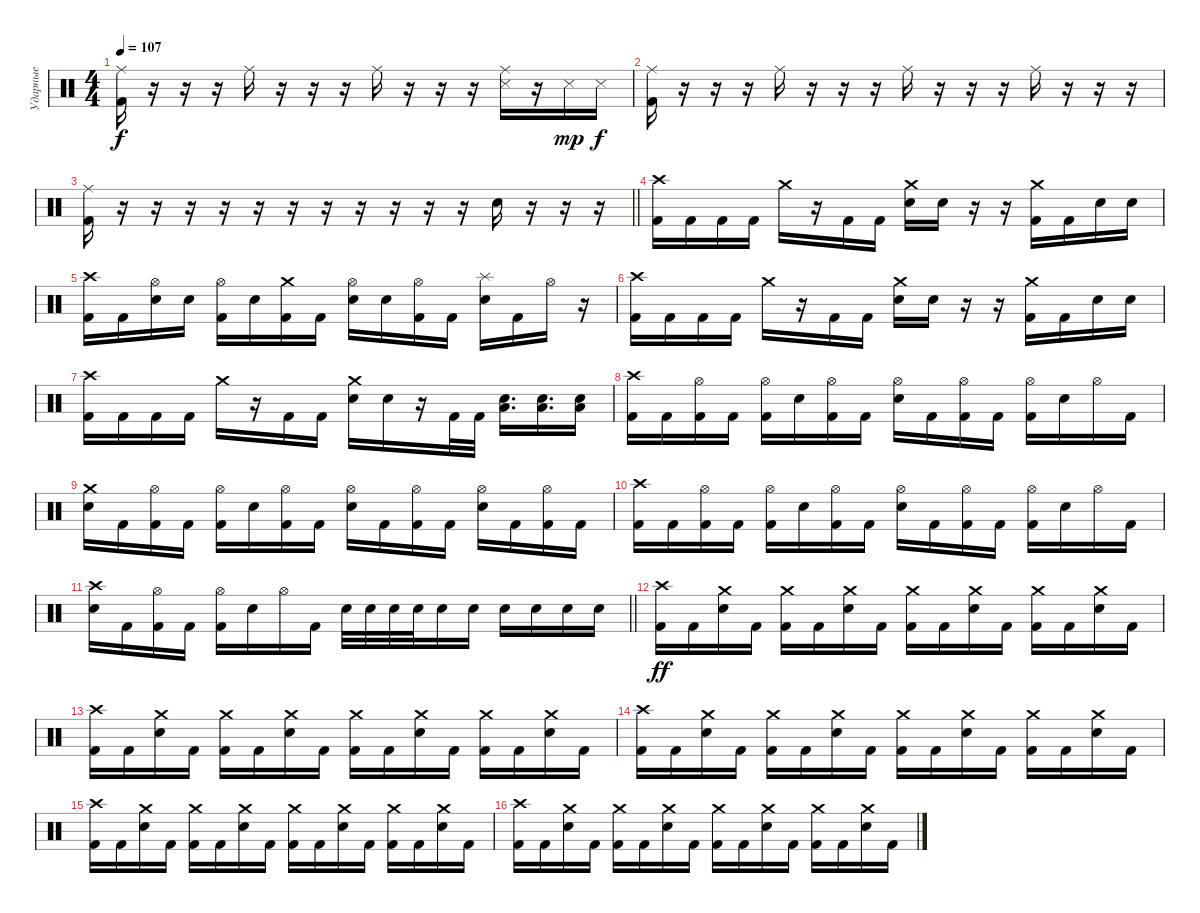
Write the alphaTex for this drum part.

\track ("Ударные" "Ударные") {instrument percussion}
\staff {score}
\articulation defaults
\ts (4 4)
\tempo 107
\clef neutral
\ks c
("Kick (hit) 2" "Ride (middle)").16{dy f} r.16 r.16 r.16 "Ride (middle)".16 r.16 r.16 r.16 "Ride (middle)".16 r.16 r.16 r.16 ("Ride (middle)" "Snare (side stick) 3").16 r.16 "Snare (side stick) 3".16{dy mp} "Snare (side stick) 3".16{dy f} |
("Kick (hit) 2" "Ride (middle)").16 r.16 r.16 r.16 "Ride (middle)".16 r.16 r.16 r.16 "Ride (middle)".16 r.16 r.16 r.16 "Ride (middle)".16 r.16 r.16 r.16 |
\barLineRight lightlight
("Kick (hit) 2" "Ride (middle)").16 r.16 r.16 r.16 r.16 r.16 r.16 r.16 r.16 r.16 r.16 r.16 "Electric Snare (hit)".16 r.16 r.16 r.16 |
\section ("" "")
("Kick (hit) 2" "Crash high (hit)").16 "Kick (hit) 2".16 "Kick (hit) 2".16 "Kick (hit) 2".16 "Crash medium (hit)".16 r.16 "Kick (hit) 2".16 "Kick (hit) 2".16 ("Electric Snare (hit)" "Crash medium (hit)").16 "Electric Snare (hit)".16 r.16 r.16 ("Kick (hit) 2" "Crash medium (hit)").16 "Kick (hit) 2".16 "Electric Snare (hit)".16 "Electric Snare (hit)".16 |
("Kick (hit) 2" "Crash high (hit)").16 "Kick (hit) 2".16 ("Electric Snare (hit)" "Hi-Hat (open)").16 "Electric Snare (hit)".16 ("Kick (hit) 2" "Hi-Hat (open)").16 "Electric Snare (hit)".16 ("Kick (hit) 2" "Crash medium (hit)").16 "Kick (hit) 2".16 ("Electric Snare (hit)" "Hi-Hat (open)").16 "Electric Snare (hit)".16 ("Kick (hit) 2" "Hi-Hat (open)").16 "Kick (hit) 2".16 ("Electric Snare (hit)" "Splash (hit)").16 "Kick (hit) 2".16 "Hi-Hat (open)".16 r.16 |
("Kick (hit) 2" "Crash high (hit)").16 "Kick (hit) 2".16 "Kick (hit) 2".16 "Kick (hit) 2".16 "Crash medium (hit)".16 r.16 "Kick (hit) 2".16 "Kick (hit) 2".16 ("Electric Snare (hit)" "Crash medium (hit)").16 "Electric Snare (hit)".16 r.16 r.16 ("Kick (hit) 2" "Crash medium (hit)").16 "Kick (hit) 2".16 "Electric Snare (hit)".16 "Electric Snare (hit)".16 |
("Kick (hit) 2" "Crash high (hit)").16 "Kick (hit) 2".16 "Kick (hit) 2".16 "Kick (hit) 2".16 "Crash medium (hit)".16 r.16 "Kick (hit) 2".16 "Kick (hit) 2".16 ("Electric Snare (hit)" "Crash medium (hit)").16 "Electric Snare (hit)".16 r.16 "Kick (hit) 2".32 "Kick (hit) 2".32 ("Electric Snare (hit)" "Low Tom (hit)").16{d} ("Electric Snare (hit)" "Low Tom (hit)").16{d} ("Electric Snare (hit)" "Low Tom (hit)").16 |
("Kick (hit) 2" "Crash high (hit)").16 "Kick (hit) 2".16 ("Kick (hit) 2" "Hi-Hat (open)").16 "Kick (hit) 2".16 ("Kick (hit) 2" "Hi-Hat (open)").16 "Electric Snare (hit)".16 ("Kick (hit) 2" "Hi-Hat (open)").16 "Kick (hit) 2".16 ("Electric Snare (hit)" "Hi-Hat (open)").16 "Kick (hit) 2".16 ("Kick (hit) 2" "Hi-Hat (open)").16 "Kick (hit) 2".16 ("Kick (hit) 2" "Hi-Hat (open)").16 "Electric Snare (hit)".16 "Hi-Hat (open)".16 "Kick (hit) 2".16 |
("Electric Snare (hit)" "Crash medium (hit)").16 "Kick (hit) 2".16 ("Kick (hit) 2" "Hi-Hat (open)").16 "Kick (hit) 2".16 ("Kick (hit) 2" "Hi-Hat (open)").16 "Electric Snare (hit)".16 ("Kick (hit) 2" "Hi-Hat (open)").16 "Kick (hit) 2".16 ("Electric Snare (hit)" "Hi-Hat (open)").16 "Kick (hit) 2".16 ("Kick (hit) 2" "Hi-Hat (open)").16 "Kick (hit) 2".16 ("Electric Snare (hit)" "Hi-Hat (open)").16 "Kick (hit) 2".16 ("Kick (hit) 2" "Hi-Hat (open)").16 "Kick (hit) 2".16 |
("Kick (hit) 2" "Crash high (hit)").16 "Kick (hit) 2".16 ("Kick (hit) 2" "Hi-Hat (open)").16 "Kick (hit) 2".16 ("Kick (hit) 2" "Hi-Hat (open)").16 "Electric Snare (hit)".16 ("Kick (hit) 2" "Hi-Hat (open)").16 "Kick (hit) 2".16 ("Electric Snare (hit)" "Hi-Hat (open)").16 "Kick (hit) 2".16 ("Kick (hit) 2" "Hi-Hat (open)").16 "Kick (hit) 2".16 ("Kick (hit) 2" "Hi-Hat (open)").16 "Electric Snare (hit)".16 "Hi-Hat (open)".16 "Kick (hit) 2".16 |
\barLineRight lightlight
("Electric Snare (hit)" "Crash high (hit)").16 "Kick (hit) 2".16 ("Kick (hit) 2" "Hi-Hat (open)").16 "Kick (hit) 2".16 ("Kick (hit) 2" "Hi-Hat (open)").16 "Electric Snare (hit)".16 "Hi-Hat (open)".16 "Kick (hit) 2".16 "Electric Snare (hit)".32 "Electric Snare (hit)".32 "Electric Snare (hit)".32 "Electric Snare (hit)".32 "Electric Snare (hit)".16 "Electric Snare (hit)".16 "Electric Snare (hit)".16 "Electric Snare (hit)".16 "Electric Snare (hit)".16 "Electric Snare (hit)".16 |
\section ("" "")
("Kick (hit) 2" "Crash high (hit)").16{dy ff} "Kick (hit) 2".16 ("Electric Snare (hit)" "Crash medium (hit)").16 "Kick (hit) 2".16 ("Kick (hit) 2" "Crash medium (hit)").16 "Kick (hit) 2".16 ("Electric Snare (hit)" "Crash medium (hit)").16 "Kick (hit) 2".16 ("Kick (hit) 2" "Crash medium (hit)").16 "Kick (hit) 2".16 ("Electric Snare (hit)" "Crash medium (hit)").16 "Kick (hit) 2".16 ("Kick (hit) 2" "Crash medium (hit)").16 "Kick (hit) 2".16 ("Electric Snare (hit)" "Crash medium (hit)").16 "Kick (hit) 2".16 |
("Kick (hit) 2" "Crash high (hit)").16 "Kick (hit) 2".16 ("Electric Snare (hit)" "Crash medium (hit)").16 "Kick (hit) 2".16 ("Kick (hit) 2" "Crash medium (hit)").16 "Kick (hit) 2".16 ("Electric Snare (hit)" "Crash medium (hit)").16 "Kick (hit) 2".16 ("Kick (hit) 2" "Crash medium (hit)").16 "Kick (hit) 2".16 ("Electric Snare (hit)" "Crash medium (hit)").16 "Kick (hit) 2".16 ("Kick (hit) 2" "Crash medium (hit)").16 "Kick (hit) 2".16 ("Electric Snare (hit)" "Crash medium (hit)").16 "Kick (hit) 2".16 |
("Kick (hit) 2" "Crash high (hit)").16 "Kick (hit) 2".16 ("Electric Snare (hit)" "Crash medium (hit)").16 "Kick (hit) 2".16 ("Kick (hit) 2" "Crash medium (hit)").16 "Kick (hit) 2".16 ("Electric Snare (hit)" "Crash medium (hit)").16 "Kick (hit) 2".16 ("Kick (hit) 2" "Crash medium (hit)").16 "Kick (hit) 2".16 ("Electric Snare (hit)" "Crash medium (hit)").16 "Kick (hit) 2".16 ("Kick (hit) 2" "Crash medium (hit)").16 "Kick (hit) 2".16 ("Electric Snare (hit)" "Crash medium (hit)").16 "Kick (hit) 2".16 |
("Kick (hit) 2" "Crash high (hit)").16 "Kick (hit) 2".16 ("Electric Snare (hit)" "Crash medium (hit)").16 "Kick (hit) 2".16 ("Kick (hit) 2" "Crash medium (hit)").16 "Kick (hit) 2".16 ("Electric Snare (hit)" "Crash medium (hit)").16 "Kick (hit) 2".16 ("Kick (hit) 2" "Crash medium (hit)").16 "Kick (hit) 2".16 ("Electric Snare (hit)" "Crash medium (hit)").16 "Kick (hit) 2".16 ("Kick (hit) 2" "Crash medium (hit)").16 "Kick (hit) 2".16 ("Electric Snare (hit)" "Crash medium (hit)").16 "Kick (hit) 2".16 |
("Kick (hit) 2" "Crash high (hit)").16 "Kick (hit) 2".16 ("Electric Snare (hit)" "Crash medium (hit)").16 "Kick (hit) 2".16 ("Kick (hit) 2" "Crash medium (hit)").16 "Kick (hit) 2".16 ("Electric Snare (hit)" "Crash medium (hit)").16 "Kick (hit) 2".16 ("Kick (hit) 2" "Crash medium (hit)").16 "Kick (hit) 2".16 ("Electric Snare (hit)" "Crash medium (hit)").16 "Kick (hit) 2".16 ("Kick (hit) 2" "Crash medium (hit)").16 "Kick (hit) 2".16 ("Electric Snare (hit)" "Crash medium (hit)").16 "Kick (hit) 2".16
